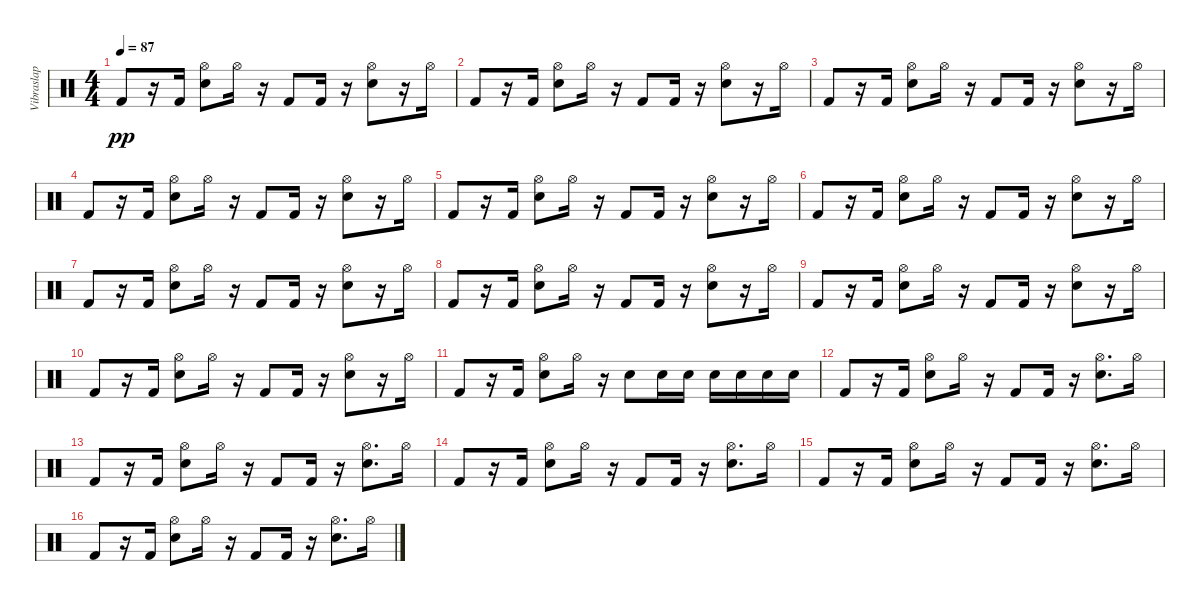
\track ("Vibraslap" "Vibraslap") {instrument percussion}
\staff {score}
\articulation defaults
\ts (4 4)
\tempo 87
\clef neutral
\ks c "Kick (hit) 2".8{dy pp}
r.16 "Kick (hit) 2".16 ("Snare (hit) 2" "Hi-Hat (open)").8 "Hi-Hat (open)".16 r.16 "Kick (hit) 2".8 "Kick (hit) 2".16 r.16 ("Hi-Hat (open)" "Snare (hit) 2").8 r.16 "Hi-Hat (open)".16 |
"Kick (hit) 2".8 r.16 "Kick (hit) 2".16 ("Snare (hit) 2" "Hi-Hat (open)").8 "Hi-Hat (open)".16 r.16 "Kick (hit) 2".8 "Kick (hit) 2".16 r.16 ("Hi-Hat (open)" "Snare (hit) 2").8 r.16 "Hi-Hat (open)".16 |
"Kick (hit) 2".8 r.16 "Kick (hit) 2".16 ("Snare (hit) 2" "Hi-Hat (open)").8 "Hi-Hat (open)".16 r.16 "Kick (hit) 2".8 "Kick (hit) 2".16 r.16 ("Hi-Hat (open)" "Snare (hit) 2").8 r.16 "Hi-Hat (open)".16 |
"Kick (hit) 2".8 r.16 "Kick (hit) 2".16 ("Snare (hit) 2" "Hi-Hat (open)").8 "Hi-Hat (open)".16 r.16 "Kick (hit) 2".8 "Kick (hit) 2".16 r.16 ("Hi-Hat (open)" "Snare (hit) 2").8 r.16 "Hi-Hat (open)".16 |
"Kick (hit) 2".8 r.16 "Kick (hit) 2".16 ("Snare (hit) 2" "Hi-Hat (open)").8 "Hi-Hat (open)".16 r.16 "Kick (hit) 2".8 "Kick (hit) 2".16 r.16 ("Hi-Hat (open)" "Snare (hit) 2").8 r.16 "Hi-Hat (open)".16 |
"Kick (hit) 2".8 r.16 "Kick (hit) 2".16 ("Snare (hit) 2" "Hi-Hat (open)").8 "Hi-Hat (open)".16 r.16 "Kick (hit) 2".8 "Kick (hit) 2".16 r.16 ("Hi-Hat (open)" "Snare (hit) 2").8 r.16 "Hi-Hat (open)".16 |
"Kick (hit) 2".8 r.16 "Kick (hit) 2".16 ("Snare (hit) 2" "Hi-Hat (open)").8 "Hi-Hat (open)".16 r.16 "Kick (hit) 2".8 "Kick (hit) 2".16 r.16 ("Hi-Hat (open)" "Snare (hit) 2").8 r.16 "Hi-Hat (open)".16 |
"Kick (hit) 2".8 r.16 "Kick (hit) 2".16 ("Snare (hit) 2" "Hi-Hat (open)").8 "Hi-Hat (open)".16 r.16 "Kick (hit) 2".8 "Kick (hit) 2".16 r.16 ("Hi-Hat (open)" "Snare (hit) 2").8 r.16 "Hi-Hat (open)".16 |
"Kick (hit) 2".8 r.16 "Kick (hit) 2".16 ("Snare (hit) 2" "Hi-Hat (open)").8 "Hi-Hat (open)".16 r.16 "Kick (hit) 2".8 "Kick (hit) 2".16 r.16 ("Hi-Hat (open)" "Snare (hit) 2").8 r.16 "Hi-Hat (open)".16 |
"Kick (hit) 2".8 r.16 "Kick (hit) 2".16 ("Snare (hit) 2" "Hi-Hat (open)").8 "Hi-Hat (open)".16 r.16 "Kick (hit) 2".8 "Kick (hit) 2".16 r.16 ("Hi-Hat (open)" "Snare (hit) 2").8 r.16 "Hi-Hat (open)".16 |
"Kick (hit) 2".8 r.16 "Kick (hit) 2".16 ("Snare (hit) 2" "Hi-Hat (open)").8 "Hi-Hat (open)".16 r.16 "Snare (hit) 2".8 "Snare (hit) 2".16 "Snare (hit) 2".16 "Snare (hit) 2".16 "Snare (hit) 2".16 "Snare (hit) 2".16 "Snare (hit) 2".16 |
"Kick (hit) 2".8 r.16 "Kick (hit) 2".16 ("Snare (hit) 2" "Hi-Hat (open)").8 "Hi-Hat (open)".16 r.16 "Kick (hit) 2".8 "Kick (hit) 2".16 r.16 ("Hi-Hat (open)" "Snare (hit) 2").8{d} "Hi-Hat (open)".16 |
"Kick (hit) 2".8 r.16 "Kick (hit) 2".16 ("Snare (hit) 2" "Hi-Hat (open)").8 "Hi-Hat (open)".16 r.16 "Kick (hit) 2".8 "Kick (hit) 2".16 r.16 ("Hi-Hat (open)" "Snare (hit) 2").8{d} "Hi-Hat (open)".16 |
"Kick (hit) 2".8 r.16 "Kick (hit) 2".16 ("Snare (hit) 2" "Hi-Hat (open)").8 "Hi-Hat (open)".16 r.16 "Kick (hit) 2".8 "Kick (hit) 2".16 r.16 ("Hi-Hat (open)" "Snare (hit) 2").8{d} "Hi-Hat (open)".16 |
"Kick (hit) 2".8 r.16 "Kick (hit) 2".16 ("Snare (hit) 2" "Hi-Hat (open)").8 "Hi-Hat (open)".16 r.16 "Kick (hit) 2".8 "Kick (hit) 2".16 r.16 ("Hi-Hat (open)" "Snare (hit) 2").8{d} "Hi-Hat (open)".16 |
"Kick (hit) 2".8 r.16 "Kick (hit) 2".16 ("Snare (hit) 2" "Hi-Hat (open)").8 "Hi-Hat (open)".16 r.16 "Kick (hit) 2".8 "Kick (hit) 2".16 r.16 ("Hi-Hat (open)" "Snare (hit) 2").8{d} "Hi-Hat (open)".16
